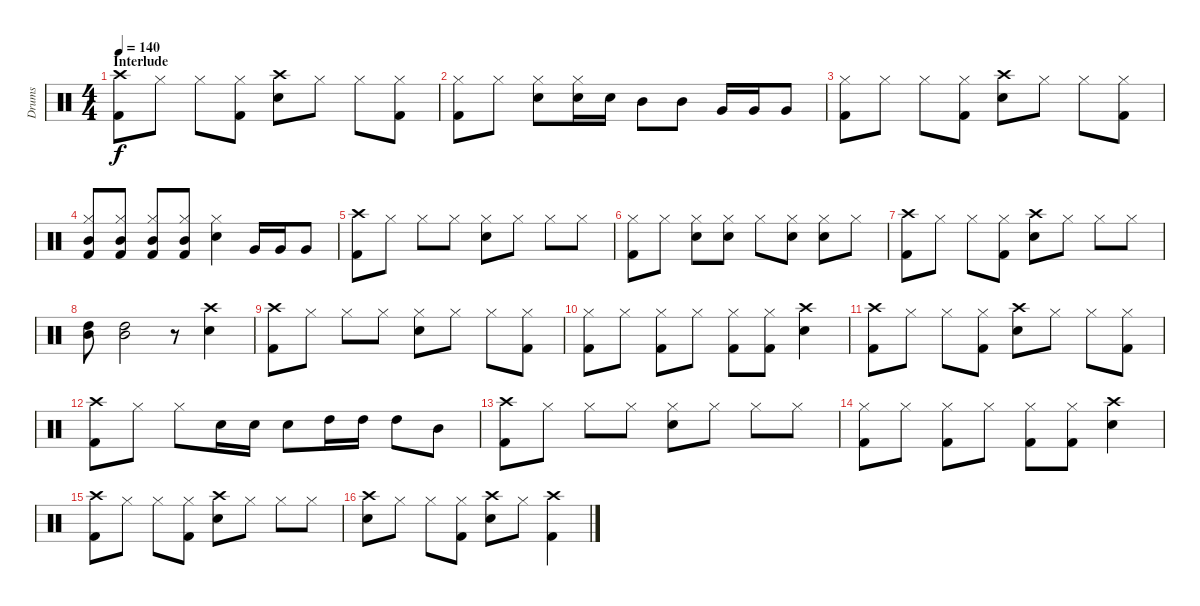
\track ("Drums" "Drums") {instrument percussion}
\staff {score}
\articulation defaults
\ts (4 4)
\section ("" "Interlude")
\tempo 140
\clef neutral
\ks c
("Crash high (hit)" "Kick (hit) 2").8{dy f} "Hi-Hat (closed)".8 "Hi-Hat (closed)".8 ("Hi-Hat (closed)" "Kick (hit) 2").8 ("Crash high (hit)" "Snare (hit) 2").8 "Hi-Hat (closed)".8 "Hi-Hat (closed)".8 ("Hi-Hat (closed)" "Kick (hit) 2").8 |
("Hi-Hat (closed)" "Kick (hit) 2").8 "Hi-Hat (closed)".8 ("Hi-Hat (closed)" "Snare (hit) 2").8 ("Hi-Hat (closed)" "Snare (hit) 2").16 "Snare (hit) 2".16 "Mid Tom (hit)".8 "Mid Tom (hit)".8 "Very Low Tom (hit)".16 "Very Low Tom (hit)".16 "Very Low Tom (hit)".8 |
("Hi-Hat (closed)" "Kick (hit) 2").8 "Hi-Hat (closed)".8 "Hi-Hat (closed)".8 ("Hi-Hat (closed)" "Kick (hit) 2").8 ("Crash high (hit)" "Snare (hit) 2").8 "Hi-Hat (closed)".8 "Hi-Hat (closed)".8 ("Hi-Hat (closed)" "Kick (hit) 2").8 |
("Hi-Hat (closed)" "Mid Tom (hit)" "Kick (hit) 2").8 ("Hi-Hat (closed)" "Mid Tom (hit)" "Kick (hit) 2").8 ("Hi-Hat (closed)" "Mid Tom (hit)" "Kick (hit) 2").8 ("Hi-Hat (closed)" "Mid Tom (hit)" "Kick (hit) 2").8 ("Hi-Hat (closed)" "Snare (hit) 2").4 "Very Low Tom (hit)".16 "Very Low Tom (hit)".16 "Very Low Tom (hit)".8 |
("Crash high (hit)" "Kick (hit) 2").8 "Hi-Hat (closed)".8 "Hi-Hat (closed)".8 "Hi-Hat (closed)".8 ("Hi-Hat (closed)" "Snare (hit) 2").8 "Hi-Hat (closed)".8 "Hi-Hat (closed)".8 "Hi-Hat (closed)".8 |
("Hi-Hat (closed)" "Kick (hit) 2").8 "Hi-Hat (closed)".8 ("Hi-Hat (closed)" "Snare (hit) 2").8 ("Hi-Hat (closed)" "Snare (hit) 2").8 "Hi-Hat (closed)".8 ("Hi-Hat (closed)" "Snare (hit) 2").8 ("Hi-Hat (closed)" "Snare (hit) 2").8 "Hi-Hat (closed)".8 |
("Crash high (hit)" "Kick (hit) 2").8 "Hi-Hat (closed)".8 "Hi-Hat (closed)".8 ("Hi-Hat (closed)" "Kick (hit) 2").8 ("Crash high (hit)" "Snare (hit) 2").8 "Hi-Hat (closed)".8 "Hi-Hat (closed)".8 "Hi-Hat (closed)".8 |
("High Tom (hit)" "Mid Tom (hit)").8 ("High Tom (hit)" "Mid Tom (hit)").2 r.8 ("Crash high (hit)" "Snare (hit) 2").4 |
("Crash high (hit)" "Kick (hit) 2").8 "Hi-Hat (closed)".8 "Hi-Hat (closed)".8 "Hi-Hat (closed)".8 ("Hi-Hat (closed)" "Snare (hit) 2").8 "Hi-Hat (closed)".8 "Hi-Hat (closed)".8 ("Hi-Hat (closed)" "Kick (hit) 2").8 |
("Hi-Hat (closed)" "Kick (hit) 2").8 "Hi-Hat (closed)".8 ("Hi-Hat (closed)" "Kick (hit) 2").8 "Hi-Hat (closed)".8 ("Hi-Hat (closed)" "Kick (hit) 2").8 ("Hi-Hat (closed)" "Kick (hit) 2").8 ("Crash high (hit)" "Snare (hit) 2").4 |
("Crash high (hit)" "Kick (hit) 2").8 "Hi-Hat (closed)".8 "Hi-Hat (closed)".8 ("Hi-Hat (closed)" "Kick (hit) 2").8 ("Crash high (hit)" "Snare (hit) 2").8 "Hi-Hat (closed)".8 "Hi-Hat (closed)".8 ("Hi-Hat (closed)" "Kick (hit) 2").8 |
("Crash high (hit)" "Kick (hit) 2").8 "Hi-Hat (closed)".8 "Hi-Hat (closed)".8 "Snare (hit) 2".16 "Snare (hit) 2".16 "Snare (hit) 2".8 "High Tom (hit)".16 "High Tom (hit)".16 "High Tom (hit)".8 "Mid Tom (hit)".8 |
("Crash high (hit)" "Kick (hit) 2").8 "Hi-Hat (closed)".8 "Hi-Hat (closed)".8 "Hi-Hat (closed)".8 ("Hi-Hat (closed)" "Snare (hit) 2").8 "Hi-Hat (closed)".8 "Hi-Hat (closed)".8 "Hi-Hat (closed)".8 |
("Hi-Hat (closed)" "Kick (hit) 2").8 "Hi-Hat (closed)".8 ("Hi-Hat (closed)" "Kick (hit) 2").8 "Hi-Hat (closed)".8 ("Hi-Hat (closed)" "Kick (hit) 2").8 ("Hi-Hat (closed)" "Kick (hit) 2").8 ("Crash high (hit)" "Snare (hit) 2").4 |
("Crash high (hit)" "Kick (hit) 2").8 "Hi-Hat (closed)".8 "Hi-Hat (closed)".8 ("Hi-Hat (closed)" "Kick (hit) 2").8 ("Crash high (hit)" "Snare (hit) 2").8 "Hi-Hat (closed)".8 "Hi-Hat (closed)".8 "Hi-Hat (closed)".8 |
("Crash high (hit)" "Snare (hit) 2").8 "Hi-Hat (closed)".8 "Hi-Hat (closed)".8 ("Hi-Hat (closed)" "Kick (hit) 2").8 ("Crash high (hit)" "Snare (hit) 2").8 "Hi-Hat (closed)".8 ("Crash high (hit)" "Kick (hit) 2").4
